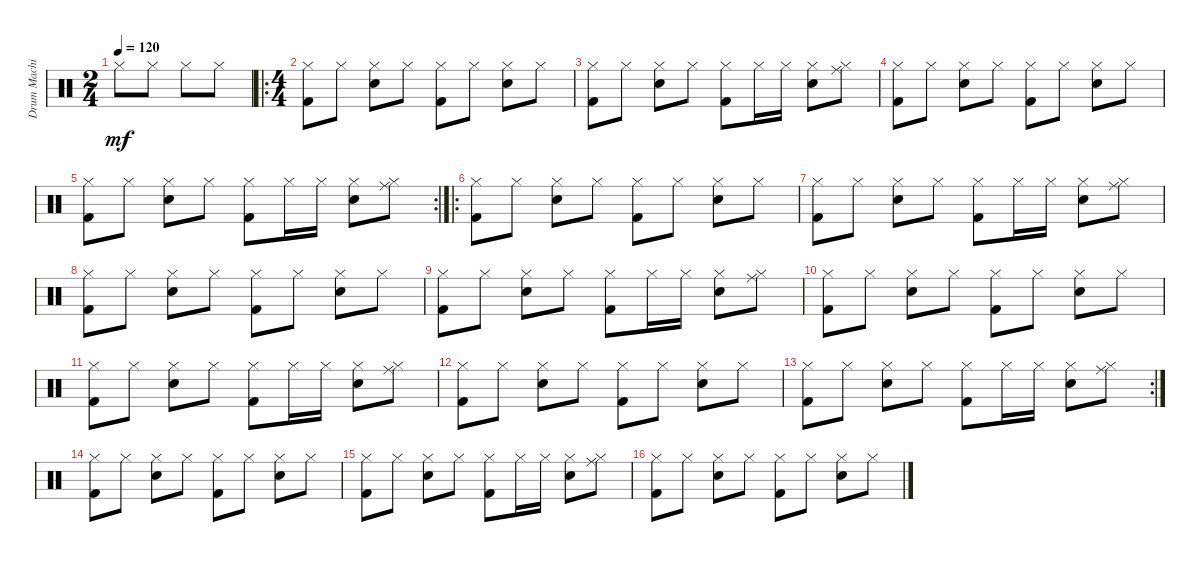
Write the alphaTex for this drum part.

\track ("Drum Machine" "Drum Machi") {instrument percussion}
\staff {score}
\articulation defaults
\ts (2 4)
\tempo 120
\clef neutral
\ks c "Hi-Hat (closed)".8{dy mf} "Hi-Hat (closed)".8 "Hi-Hat (closed)".8 "Hi-Hat (closed)".8
|
\ro
\ts (4 4)
("Hi-Hat (closed)" "Kick (hit) 2").8 "Hi-Hat (closed)".8 ("Hi-Hat (closed)" "Snare (hit) 2").8 "Hi-Hat (closed)".8 ("Hi-Hat (closed)" "Kick (hit) 2").8 "Hi-Hat (closed)".8 ("Hi-Hat (closed)" "Snare (hit) 2").8 "Hi-Hat (closed)".8 |
("Hi-Hat (closed)" "Kick (hit) 2").8 "Hi-Hat (closed)".8 ("Hi-Hat (closed)" "Snare (hit) 2").8 "Hi-Hat (closed)".8 ("Hi-Hat (closed)" "Kick (hit) 2").8 "Hi-Hat (closed)".16 "Hi-Hat (closed)".16 ("Hi-Hat (closed)" "Snare (hit) 2").8 ("Hi-Hat (closed)" "Ride (middle)").8 |
("Hi-Hat (closed)" "Kick (hit) 2").8 "Hi-Hat (closed)".8 ("Hi-Hat (closed)" "Snare (hit) 2").8 "Hi-Hat (closed)".8 ("Hi-Hat (closed)" "Kick (hit) 2").8 "Hi-Hat (closed)".8 ("Hi-Hat (closed)" "Snare (hit) 2").8 "Hi-Hat (closed)".8 |
\rc 2
("Hi-Hat (closed)" "Kick (hit) 2").8 "Hi-Hat (closed)".8 ("Hi-Hat (closed)" "Snare (hit) 2").8 "Hi-Hat (closed)".8 ("Hi-Hat (closed)" "Kick (hit) 2").8 "Hi-Hat (closed)".16 "Hi-Hat (closed)".16 ("Hi-Hat (closed)" "Snare (hit) 2").8 ("Hi-Hat (closed)" "Ride (middle)").8 |
\ro
("Hi-Hat (closed)" "Kick (hit) 2").8 "Hi-Hat (closed)".8 ("Hi-Hat (closed)" "Snare (hit) 2").8 "Hi-Hat (closed)".8 ("Hi-Hat (closed)" "Kick (hit) 2").8 "Hi-Hat (closed)".8 ("Hi-Hat (closed)" "Snare (hit) 2").8 "Hi-Hat (closed)".8 |
("Hi-Hat (closed)" "Kick (hit) 2").8 "Hi-Hat (closed)".8 ("Hi-Hat (closed)" "Snare (hit) 2").8 "Hi-Hat (closed)".8 ("Hi-Hat (closed)" "Kick (hit) 2").8 "Hi-Hat (closed)".16 "Hi-Hat (closed)".16 ("Hi-Hat (closed)" "Snare (hit) 2").8 ("Hi-Hat (closed)" "Ride (middle)").8 |
("Hi-Hat (closed)" "Kick (hit) 2").8 "Hi-Hat (closed)".8 ("Hi-Hat (closed)" "Snare (hit) 2").8 "Hi-Hat (closed)".8 ("Hi-Hat (closed)" "Kick (hit) 2").8 "Hi-Hat (closed)".8 ("Hi-Hat (closed)" "Snare (hit) 2").8 "Hi-Hat (closed)".8 |
("Hi-Hat (closed)" "Kick (hit) 2").8 "Hi-Hat (closed)".8 ("Hi-Hat (closed)" "Snare (hit) 2").8 "Hi-Hat (closed)".8 ("Hi-Hat (closed)" "Kick (hit) 2").8 "Hi-Hat (closed)".16 "Hi-Hat (closed)".16 ("Hi-Hat (closed)" "Snare (hit) 2").8 ("Hi-Hat (closed)" "Ride (middle)").8 |
("Hi-Hat (closed)" "Kick (hit) 2").8 "Hi-Hat (closed)".8 ("Hi-Hat (closed)" "Snare (hit) 2").8 "Hi-Hat (closed)".8 ("Hi-Hat (closed)" "Kick (hit) 2").8 "Hi-Hat (closed)".8 ("Hi-Hat (closed)" "Snare (hit) 2").8 "Hi-Hat (closed)".8 |
("Hi-Hat (closed)" "Kick (hit) 2").8 "Hi-Hat (closed)".8 ("Hi-Hat (closed)" "Snare (hit) 2").8 "Hi-Hat (closed)".8 ("Hi-Hat (closed)" "Kick (hit) 2").8 "Hi-Hat (closed)".16 "Hi-Hat (closed)".16 ("Hi-Hat (closed)" "Snare (hit) 2").8 ("Hi-Hat (closed)" "Ride (middle)").8 |
("Hi-Hat (closed)" "Kick (hit) 2").8 "Hi-Hat (closed)".8 ("Hi-Hat (closed)" "Snare (hit) 2").8 "Hi-Hat (closed)".8 ("Hi-Hat (closed)" "Kick (hit) 2").8 "Hi-Hat (closed)".8 ("Hi-Hat (closed)" "Snare (hit) 2").8 "Hi-Hat (closed)".8 |
\rc 2
("Hi-Hat (closed)" "Kick (hit) 2").8 "Hi-Hat (closed)".8 ("Hi-Hat (closed)" "Snare (hit) 2").8 "Hi-Hat (closed)".8 ("Hi-Hat (closed)" "Kick (hit) 2").8 "Hi-Hat (closed)".16 "Hi-Hat (closed)".16 ("Hi-Hat (closed)" "Snare (hit) 2").8 ("Hi-Hat (closed)" "Ride (middle)").8 |
("Hi-Hat (closed)" "Kick (hit) 2").8 "Hi-Hat (closed)".8 ("Hi-Hat (closed)" "Snare (hit) 2").8 "Hi-Hat (closed)".8 ("Hi-Hat (closed)" "Kick (hit) 2").8 "Hi-Hat (closed)".8 ("Hi-Hat (closed)" "Snare (hit) 2").8 "Hi-Hat (closed)".8 |
("Hi-Hat (closed)" "Kick (hit) 2").8 "Hi-Hat (closed)".8 ("Hi-Hat (closed)" "Snare (hit) 2").8 "Hi-Hat (closed)".8 ("Hi-Hat (closed)" "Kick (hit) 2").8 "Hi-Hat (closed)".16 "Hi-Hat (closed)".16 ("Hi-Hat (closed)" "Snare (hit) 2").8 ("Hi-Hat (closed)" "Ride (middle)").8 |
("Hi-Hat (closed)" "Kick (hit) 2").8 "Hi-Hat (closed)".8 ("Hi-Hat (closed)" "Snare (hit) 2").8 "Hi-Hat (closed)".8 ("Hi-Hat (closed)" "Kick (hit) 2").8 "Hi-Hat (closed)".8 ("Hi-Hat (closed)" "Snare (hit) 2").8 "Hi-Hat (closed)".8
